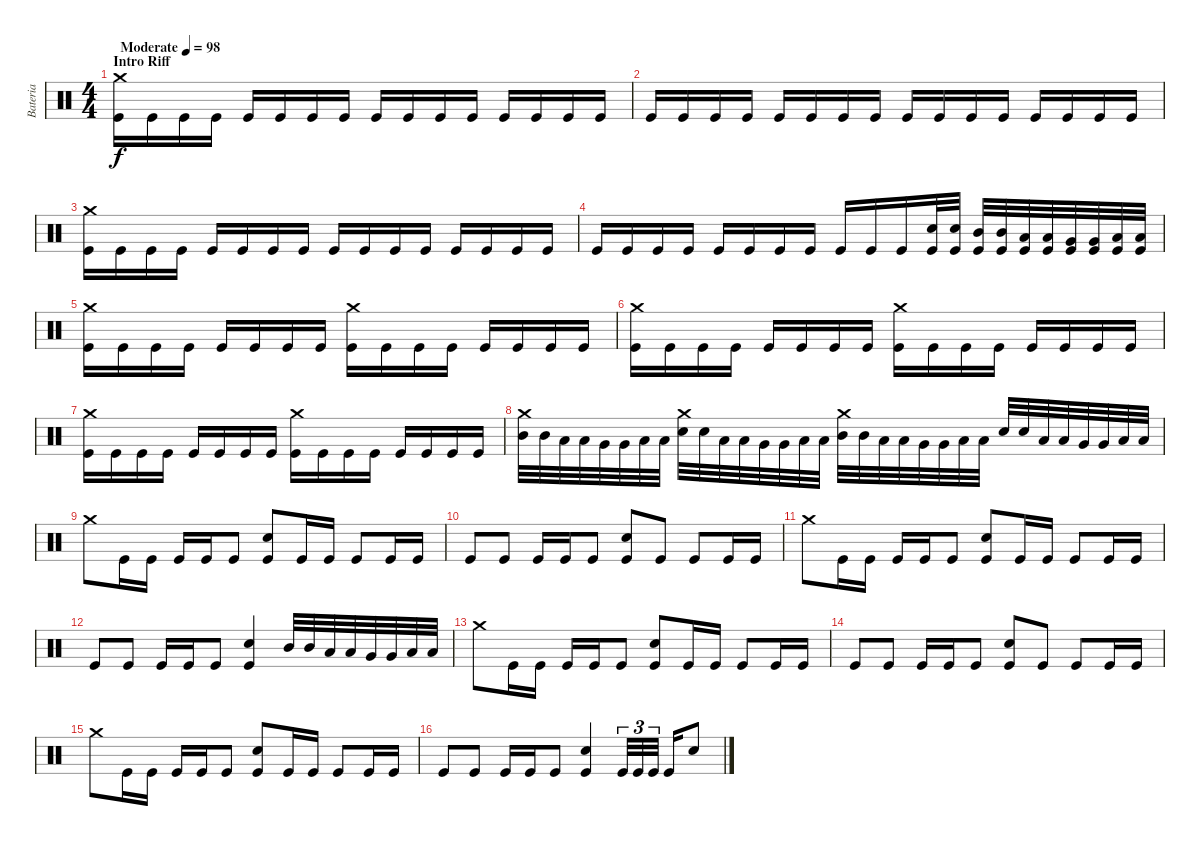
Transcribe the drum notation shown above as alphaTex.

\track ("Bateria" "Bateria") {instrument percussion}
\staff {score}
\articulation defaults
\ts (4 4)
\section ("" "Intro Riff")
\tempo (98 "Moderate")
\clef neutral
\ks c
("Crash medium (hit)" "Kick (hit)").16{dy f} "Kick (hit)".16 "Kick (hit)".16 "Kick (hit)".16 "Kick (hit)".16 "Kick (hit)".16 "Kick (hit)".16 "Kick (hit)".16 "Kick (hit)".16 "Kick (hit)".16 "Kick (hit)".16 "Kick (hit)".16 "Kick (hit)".16 "Kick (hit)".16 "Kick (hit)".16 "Kick (hit)".16 |
"Kick (hit)".16 "Kick (hit)".16 "Kick (hit)".16 "Kick (hit)".16 "Kick (hit)".16 "Kick (hit)".16 "Kick (hit)".16 "Kick (hit)".16 "Kick (hit)".16 "Kick (hit)".16 "Kick (hit)".16 "Kick (hit)".16 "Kick (hit)".16 "Kick (hit)".16 "Kick (hit)".16 "Kick (hit)".16 |
("Crash medium (hit)" "Kick (hit)").16 "Kick (hit)".16 "Kick (hit)".16 "Kick (hit)".16 "Kick (hit)".16 "Kick (hit)".16 "Kick (hit)".16 "Kick (hit)".16 "Kick (hit)".16 "Kick (hit)".16 "Kick (hit)".16 "Kick (hit)".16 "Kick (hit)".16 "Kick (hit)".16 "Kick (hit)".16 "Kick (hit)".16 |
"Kick (hit)".16 "Kick (hit)".16 "Kick (hit)".16 "Kick (hit)".16 "Kick (hit)".16 "Kick (hit)".16 "Kick (hit)".16 "Kick (hit)".16 "Kick (hit)".16 "Kick (hit)".16 "Kick (hit)".16 ("Electric Snare (hit)" "Kick (hit)").32 ("Electric Snare (hit)" "Kick (hit)").32 ("Mid Tom (hit)" "Kick (hit)").32 ("Mid Tom (hit)" "Kick (hit)").32 ("Low Tom (hit)" "Kick (hit)").32 ("Low Tom (hit)" "Kick (hit)").32 ("Very Low Tom (hit)" "Kick (hit)").32 ("Very Low Tom (hit)" "Kick (hit)").32 ("Low Floor Tom (hit)" "Kick (hit)").32 ("Low Floor Tom (hit)" "Kick (hit)").32 |
("Crash medium (hit)" "Kick (hit)").16 "Kick (hit)".16 "Kick (hit)".16 "Kick (hit)".16 "Kick (hit)".16 "Kick (hit)".16 "Kick (hit)".16 "Kick (hit)".16 ("Crash medium (hit)" "Kick (hit)").16 "Kick (hit)".16 "Kick (hit)".16 "Kick (hit)".16 "Kick (hit)".16 "Kick (hit)".16 "Kick (hit)".16 "Kick (hit)".16 |
("Crash medium (hit)" "Kick (hit)").16 "Kick (hit)".16 "Kick (hit)".16 "Kick (hit)".16 "Kick (hit)".16 "Kick (hit)".16 "Kick (hit)".16 "Kick (hit)".16 ("Crash medium (hit)" "Kick (hit)").16 "Kick (hit)".16 "Kick (hit)".16 "Kick (hit)".16 "Kick (hit)".16 "Kick (hit)".16 "Kick (hit)".16 "Kick (hit)".16 |
("Crash medium (hit)" "Kick (hit)").16 "Kick (hit)".16 "Kick (hit)".16 "Kick (hit)".16 "Kick (hit)".16 "Kick (hit)".16 "Kick (hit)".16 "Kick (hit)".16 ("Crash medium (hit)" "Kick (hit)").16 "Kick (hit)".16 "Kick (hit)".16 "Kick (hit)".16 "Kick (hit)".16 "Kick (hit)".16 "Kick (hit)".16 "Kick (hit)".16 |
("Crash medium (hit)" "Mid Tom (hit)").32 "Mid Tom (hit)".32 "Low Tom (hit)".32 "Low Tom (hit)".32 "Very Low Tom (hit)".32 "Very Low Tom (hit)".32 "Low Floor Tom (hit)".32 "Low Floor Tom (hit)".32 ("Crash medium (hit)" "Electric Snare (hit)").32 "Electric Snare (hit)".32 "Low Floor Tom (hit)".32 "Low Floor Tom (hit)".32 "Very Low Tom (hit)".32 "Very Low Tom (hit)".32 "Low Tom (hit)".32 "Low Tom (hit)".32 ("Crash medium (hit)" "Mid Tom (hit)").32 "Mid Tom (hit)".32 "Low Tom (hit)".32 "Low Tom (hit)".32 "Very Low Tom (hit)".32 "Very Low Tom (hit)".32 "Low Floor Tom (hit)".32 "Low Floor Tom (hit)".32 "Electric Snare (hit)".32 "Electric Snare (hit)".32 "Low Floor Tom (hit)".32 "Low Floor Tom (hit)".32 "Very Low Tom (hit)".32 "Very Low Tom (hit)".32 "Low Tom (hit)".32 "Low Tom (hit)".32 |
"Crash medium (hit)".8 "Kick (hit)".16 "Kick (hit)".16 "Kick (hit)".16 "Kick (hit)".16 "Kick (hit)".8 ("Electric Snare (hit)" "Kick (hit)").8 "Kick (hit)".16 "Kick (hit)".16 "Kick (hit)".8 "Kick (hit)".16 "Kick (hit)".16 |
"Kick (hit)".8 "Kick (hit)".8 "Kick (hit)".16 "Kick (hit)".16 "Kick (hit)".8 ("Electric Snare (hit)" "Kick (hit)").8 "Kick (hit)".8 "Kick (hit)".8 "Kick (hit)".16 "Kick (hit)".16 |
"Crash medium (hit)".8 "Kick (hit)".16 "Kick (hit)".16 "Kick (hit)".16 "Kick (hit)".16 "Kick (hit)".8 ("Electric Snare (hit)" "Kick (hit)").8 "Kick (hit)".16 "Kick (hit)".16 "Kick (hit)".8 "Kick (hit)".16 "Kick (hit)".16 |
"Kick (hit)".8 "Kick (hit)".8 "Kick (hit)".16 "Kick (hit)".16 "Kick (hit)".8 ("Electric Snare (hit)" "Kick (hit)").4 "Mid Tom (hit)".32 "Mid Tom (hit)".32 "Low Tom (hit)".32 "Low Tom (hit)".32 "Very Low Tom (hit)".32 "Very Low Tom (hit)".32 "Low Floor Tom (hit)".32 "Low Floor Tom (hit)".32 |
"Crash medium (hit)".8 "Kick (hit)".16 "Kick (hit)".16 "Kick (hit)".16 "Kick (hit)".16 "Kick (hit)".8 ("Electric Snare (hit)" "Kick (hit)").8 "Kick (hit)".16 "Kick (hit)".16 "Kick (hit)".8 "Kick (hit)".16 "Kick (hit)".16 |
"Kick (hit)".8 "Kick (hit)".8 "Kick (hit)".16 "Kick (hit)".16 "Kick (hit)".8 ("Electric Snare (hit)" "Kick (hit)").8 "Kick (hit)".8 "Kick (hit)".8 "Kick (hit)".16 "Kick (hit)".16 |
"Crash medium (hit)".8 "Kick (hit)".16 "Kick (hit)".16 "Kick (hit)".16 "Kick (hit)".16 "Kick (hit)".8 ("Electric Snare (hit)" "Kick (hit)").8 "Kick (hit)".16 "Kick (hit)".16 "Kick (hit)".8 "Kick (hit)".16 "Kick (hit)".16 |
"Kick (hit)".8 "Kick (hit)".8 "Kick (hit)".16 "Kick (hit)".16 "Kick (hit)".8 ("Electric Snare (hit)" "Kick (hit)").4 "Kick (hit)".32{tu (3 2)} "Kick (hit)".32{tu (3 2)} "Kick (hit)".32{tu (3 2) beam splitsecondary} "Kick (hit)".16 "Electric Snare (hit)".8
